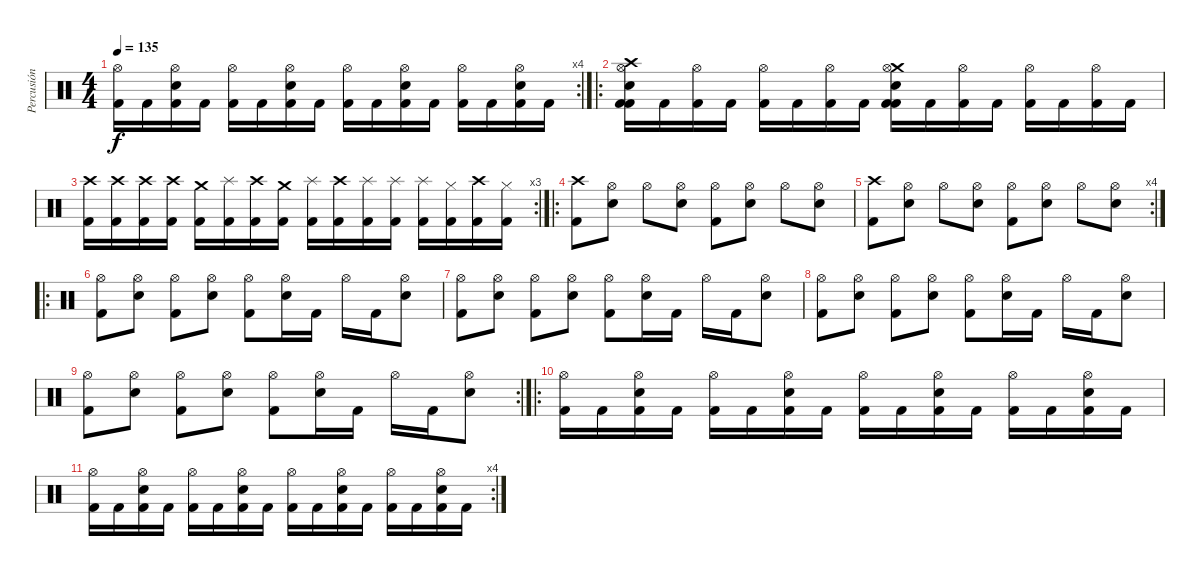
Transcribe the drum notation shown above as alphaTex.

\track ("Percusión 1" "Percusión ") {instrument percussion}
\staff {score}
\articulation defaults
\rc 4
\ts (4 4)
\tempo 135
\clef neutral
\ks c
("Hi-Hat (open)" "Kick (hit) 2").16{dy f} "Kick (hit) 2".16 ("Hi-Hat (open)" "Electric Snare (hit)" "Kick (hit) 2").16 "Kick (hit) 2".16 ("Hi-Hat (open)" "Kick (hit) 2").16 "Kick (hit) 2".16 ("Hi-Hat (open)" "Electric Snare (hit)" "Kick (hit) 2").16 "Kick (hit) 2".16 ("Hi-Hat (open)" "Kick (hit) 2").16 "Kick (hit) 2".16 ("Hi-Hat (open)" "Electric Snare (hit)" "Kick (hit) 2").16 "Kick (hit) 2".16 ("Hi-Hat (open)" "Kick (hit) 2").16 "Kick (hit) 2".16 ("Hi-Hat (open)" "Electric Snare (hit)" "Kick (hit) 2").16 "Kick (hit) 2".16 |
\ro
("Crash high (hit)" "Electric Snare (hit)" "Kick (hit) 2" "Hi-Hat (open)" "Kick (hit) 2").16 "Kick (hit) 2".16 ("Hi-Hat (open)" "Kick (hit) 2").16 "Kick (hit) 2".16 ("Hi-Hat (open)" "Kick (hit) 2").16 "Kick (hit) 2".16 ("Hi-Hat (open)" "Kick (hit) 2").16 "Kick (hit) 2".16 ("Crash medium (hit)" "Electric Snare (hit)" "Kick (hit) 2" "Hi-Hat (open)" "Kick (hit) 2").16 "Kick (hit) 2".16 ("Hi-Hat (open)" "Kick (hit) 2").16 "Kick (hit) 2".16 ("Hi-Hat (open)" "Kick (hit) 2").16 "Kick (hit) 2".16 ("Hi-Hat (open)" "Kick (hit) 2").16 "Kick (hit) 2".16 |
\rc 3
("Crash high (hit)" "Kick (hit) 2").16 ("Crash high (hit)" "Kick (hit) 2").16 ("Crash high (hit)" "Kick (hit) 2").16 ("Crash high (hit)" "Kick (hit) 2").16 ("Crash medium (hit)" "Kick (hit) 2").16 ("Splash (hit)" "Kick (hit) 2").16 ("Crash high (hit)" "Kick (hit) 2").16 ("Crash medium (hit)" "Kick (hit) 2").16 ("Splash (hit)" "Kick (hit) 2").16 ("Crash high (hit)" "Kick (hit) 2").16 ("Splash (hit)" "Kick (hit) 2").16 ("Splash (hit)" "Kick (hit) 2").16 ("Splash (hit)" "Kick (hit) 2").16 ("Hi-Hat (closed)" "Kick (hit) 2").16 ("Crash high (hit)" "Kick (hit) 2").16 ("Hi-Hat (closed)" "Kick (hit) 2").16 |
\ro
("Crash high (hit)" "Kick (hit) 2").8 ("Hi-Hat (open)" "Electric Snare (hit)").8 "Hi-Hat (open)".8 ("Hi-Hat (open)" "Electric Snare (hit)").8 ("Hi-Hat (open)" "Kick (hit) 2").8 ("Hi-Hat (open)" "Electric Snare (hit)").8 "Hi-Hat (open)".8 ("Hi-Hat (open)" "Electric Snare (hit)").8 |
\rc 4
("Crash high (hit)" "Kick (hit) 2").8 ("Hi-Hat (open)" "Electric Snare (hit)").8 "Hi-Hat (open)".8 ("Hi-Hat (open)" "Electric Snare (hit)").8 ("Hi-Hat (open)" "Kick (hit) 2").8 ("Hi-Hat (open)" "Electric Snare (hit)").8 "Hi-Hat (open)".8 ("Hi-Hat (open)" "Electric Snare (hit)").8 |
\ro
("Hi-Hat (open)" "Kick (hit) 2").8 ("Hi-Hat (open)" "Electric Snare (hit)").8 ("Hi-Hat (open)" "Kick (hit) 2").8 ("Hi-Hat (open)" "Electric Snare (hit)").8 ("Hi-Hat (open)" "Kick (hit) 2").8 ("Hi-Hat (open)" "Electric Snare (hit)").16 "Kick (hit) 2".16 "Hi-Hat (open)".16 "Kick (hit) 2".16 ("Hi-Hat (open)" "Electric Snare (hit)").8 |
("Hi-Hat (open)" "Kick (hit) 2").8 ("Hi-Hat (open)" "Electric Snare (hit)").8 ("Hi-Hat (open)" "Kick (hit) 2").8 ("Hi-Hat (open)" "Electric Snare (hit)").8 ("Hi-Hat (open)" "Kick (hit) 2").8 ("Hi-Hat (open)" "Electric Snare (hit)").16 "Kick (hit) 2".16 "Hi-Hat (open)".16 "Kick (hit) 2".16 ("Hi-Hat (open)" "Electric Snare (hit)").8 |
("Hi-Hat (open)" "Kick (hit) 2").8 ("Hi-Hat (open)" "Electric Snare (hit)").8 ("Hi-Hat (open)" "Kick (hit) 2").8 ("Hi-Hat (open)" "Electric Snare (hit)").8 ("Hi-Hat (open)" "Kick (hit) 2").8 ("Hi-Hat (open)" "Electric Snare (hit)").16 "Kick (hit) 2".16 "Hi-Hat (open)".16 "Kick (hit) 2".16 ("Hi-Hat (open)" "Electric Snare (hit)").8 |
\rc 2
("Hi-Hat (open)" "Kick (hit) 2").8 ("Hi-Hat (open)" "Electric Snare (hit)").8 ("Hi-Hat (open)" "Kick (hit) 2").8 ("Hi-Hat (open)" "Electric Snare (hit)").8 ("Hi-Hat (open)" "Kick (hit) 2").8 ("Hi-Hat (open)" "Electric Snare (hit)").16 "Kick (hit) 2".16 "Hi-Hat (open)".16 "Kick (hit) 2".16 ("Hi-Hat (open)" "Electric Snare (hit)").8 |
\ro
("Hi-Hat (open)" "Kick (hit) 2").16 "Kick (hit) 2".16 ("Hi-Hat (open)" "Electric Snare (hit)" "Kick (hit) 2").16 "Kick (hit) 2".16 ("Hi-Hat (open)" "Kick (hit) 2").16 "Kick (hit) 2".16 ("Hi-Hat (open)" "Electric Snare (hit)" "Kick (hit) 2").16 "Kick (hit) 2".16 ("Hi-Hat (open)" "Kick (hit) 2").16 "Kick (hit) 2".16 ("Hi-Hat (open)" "Electric Snare (hit)" "Kick (hit) 2").16 "Kick (hit) 2".16 ("Hi-Hat (open)" "Kick (hit) 2").16 "Kick (hit) 2".16 ("Hi-Hat (open)" "Electric Snare (hit)" "Kick (hit) 2").16 "Kick (hit) 2".16 |
\rc 4
("Hi-Hat (open)" "Kick (hit) 2").16 "Kick (hit) 2".16 ("Hi-Hat (open)" "Electric Snare (hit)" "Kick (hit) 2").16 "Kick (hit) 2".16 ("Hi-Hat (open)" "Kick (hit) 2").16 "Kick (hit) 2".16 ("Hi-Hat (open)" "Electric Snare (hit)" "Kick (hit) 2").16 "Kick (hit) 2".16 ("Hi-Hat (open)" "Kick (hit) 2").16 "Kick (hit) 2".16 ("Hi-Hat (open)" "Electric Snare (hit)" "Kick (hit) 2").16 "Kick (hit) 2".16 ("Hi-Hat (open)" "Kick (hit) 2").16 "Kick (hit) 2".16 ("Hi-Hat (open)" "Electric Snare (hit)" "Kick (hit) 2").16 "Kick (hit) 2".16
